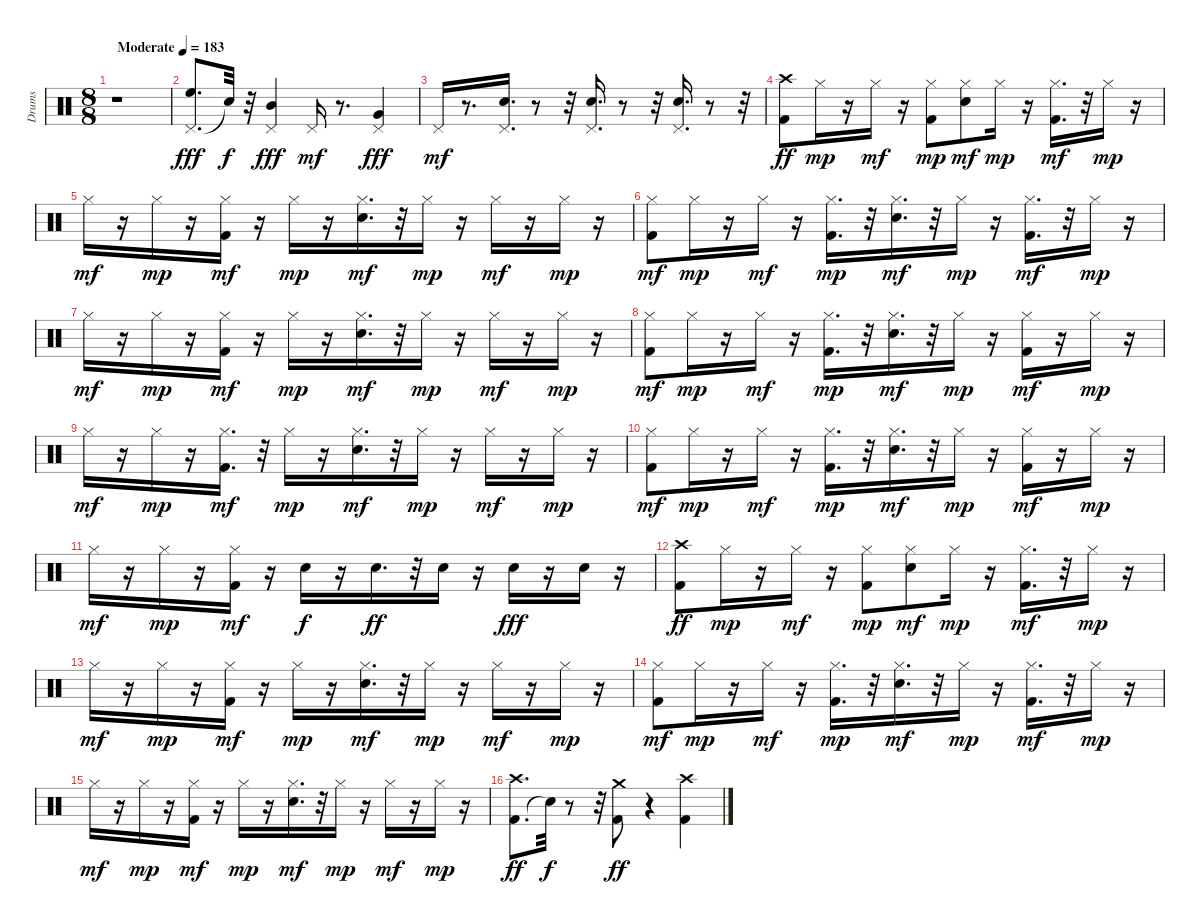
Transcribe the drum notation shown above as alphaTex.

\track ("Drums" "Drums") {instrument percussion}
\staff {score}
\articulation defaults
\ts (8 8)
\tempo (183 "Moderate")
\clef neutral
\ks c
r.1{dy fff} |
("Pedal Hi-Hat (hit)" "High Floor Tom (hit)").8{d} "Snare (hit)"{t}.32{dy f} r.32 ("Pedal Hi-Hat (hit)" "Mid Tom (hit)").4{dy fff} "Pedal Hi-Hat (hit)".16{dy mf} r.8{d} ("Pedal Hi-Hat (hit)" "Very Low Tom (hit)").4{dy fff} |
"Pedal Hi-Hat (hit)".16{dy mf} r.8{d} ("Snare (hit) 2" "Pedal Hi-Hat (hit)").16{d} r.8 r.32 ("Snare (hit) 2" "Pedal Hi-Hat (hit)").16{d} r.8 r.32 ("Snare (hit) 2" "Pedal Hi-Hat (hit)").16{d} r.8 r.32 |
("Kick (hit) 2" "Crash high (hit)").8{dy ff} "Hi-Hat (closed)".16{dy mp} r.16 "Hi-Hat (closed)".16{dy mf} r.16 ("Kick (hit) 2" "Hi-Hat (closed)").8{dy mp} ("Snare (hit) 2" "Hi-Hat (closed)").8{dy mf} "Hi-Hat (closed)".16{dy mp} r.16 ("Kick (hit) 2" "Hi-Hat (closed)").16{d dy mf} r.32 "Hi-Hat (closed)".16{dy mp} r.16 |
"Hi-Hat (closed)".16{dy mf} r.16 "Hi-Hat (closed)".16{dy mp} r.16 ("Kick (hit) 2" "Hi-Hat (closed)").16{dy mf} r.16 "Hi-Hat (closed)".16{dy mp} r.16 ("Snare (hit) 2" "Hi-Hat (closed)").16{d dy mf} r.32 "Hi-Hat (closed)".16{dy mp} r.16 "Hi-Hat (closed)".16{dy mf} r.16 "Hi-Hat (closed)".16{dy mp} r.16 |
("Kick (hit) 2" "Hi-Hat (closed)").8{dy mf} "Hi-Hat (closed)".16{dy mp} r.16 "Hi-Hat (closed)".16{dy mf} r.16 ("Kick (hit) 2" "Hi-Hat (closed)").16{d dy mp} r.32 ("Snare (hit) 2" "Hi-Hat (closed)").16{d dy mf} r.32 "Hi-Hat (closed)".16{dy mp} r.16 ("Kick (hit) 2" "Hi-Hat (closed)").16{d dy mf} r.32 "Hi-Hat (closed)".16{dy mp} r.16 |
"Hi-Hat (closed)".16{dy mf} r.16 "Hi-Hat (closed)".16{dy mp} r.16 ("Kick (hit) 2" "Hi-Hat (closed)").16{dy mf} r.16 "Hi-Hat (closed)".16{dy mp} r.16 ("Snare (hit) 2" "Hi-Hat (closed)").16{d dy mf} r.32 "Hi-Hat (closed)".16{dy mp} r.16 "Hi-Hat (closed)".16{dy mf} r.16 "Hi-Hat (closed)".16{dy mp} r.16 |
("Kick (hit) 2" "Hi-Hat (closed)").8{dy mf} "Hi-Hat (closed)".16{dy mp} r.16 "Hi-Hat (closed)".16{dy mf} r.16 ("Kick (hit) 2" "Hi-Hat (closed)").16{d dy mp} r.32 ("Snare (hit) 2" "Hi-Hat (closed)").16{d dy mf} r.32 "Hi-Hat (closed)".16{dy mp} r.16 ("Kick (hit) 2" "Hi-Hat (closed)").16{dy mf} r.16 "Hi-Hat (closed)".16{dy mp} r.16 |
"Hi-Hat (closed)".16{dy mf} r.16 "Hi-Hat (closed)".16{dy mp} r.16 ("Kick (hit) 2" "Hi-Hat (closed)").16{d dy mf} r.32 "Hi-Hat (closed)".16{dy mp} r.16 ("Snare (hit) 2" "Hi-Hat (closed)").16{d dy mf} r.32 "Hi-Hat (closed)".16{dy mp} r.16 "Hi-Hat (closed)".16{dy mf} r.16 "Hi-Hat (closed)".16{dy mp} r.16 |
("Kick (hit) 2" "Hi-Hat (closed)").8{dy mf} "Hi-Hat (closed)".16{dy mp} r.16 "Hi-Hat (closed)".16{dy mf} r.16 ("Kick (hit) 2" "Hi-Hat (closed)").16{d dy mp} r.32 ("Snare (hit) 2" "Hi-Hat (closed)").16{d dy mf} r.32 "Hi-Hat (closed)".16{dy mp} r.16 ("Kick (hit) 2" "Hi-Hat (closed)").16{dy mf} r.16 "Hi-Hat (closed)".16{dy mp} r.16 |
"Hi-Hat (closed)".16{dy mf} r.16 "Hi-Hat (closed)".16{dy mp} r.16 ("Kick (hit) 2" "Hi-Hat (closed)").16{dy mf} r.16 "Snare (hit) 2".16{dy f} r.16 "Snare (hit) 2".16{d dy ff} r.32 "Snare (hit) 2".16 r.16 "Snare (hit) 2".16{dy fff} r.16 "Snare (hit) 2".16 r.16 |
("Kick (hit) 2" "Crash high (hit)").8{dy ff} "Hi-Hat (closed)".16{dy mp} r.16 "Hi-Hat (closed)".16{dy mf} r.16 ("Kick (hit) 2" "Hi-Hat (closed)").8{dy mp} ("Snare (hit) 2" "Hi-Hat (closed)").8{dy mf} "Hi-Hat (closed)".16{dy mp} r.16 ("Kick (hit) 2" "Hi-Hat (closed)").16{d dy mf} r.32 "Hi-Hat (closed)".16{dy mp} r.16 |
"Hi-Hat (closed)".16{dy mf} r.16 "Hi-Hat (closed)".16{dy mp} r.16 ("Kick (hit) 2" "Hi-Hat (closed)").16{dy mf} r.16 "Hi-Hat (closed)".16{dy mp} r.16 ("Snare (hit) 2" "Hi-Hat (closed)").16{d dy mf} r.32 "Hi-Hat (closed)".16{dy mp} r.16 "Hi-Hat (closed)".16{dy mf} r.16 "Hi-Hat (closed)".16{dy mp} r.16 |
("Kick (hit) 2" "Hi-Hat (closed)").8{dy mf} "Hi-Hat (closed)".16{dy mp} r.16 "Hi-Hat (closed)".16{dy mf} r.16 ("Kick (hit) 2" "Hi-Hat (closed)").16{d dy mp} r.32 ("Snare (hit) 2" "Hi-Hat (closed)").16{d dy mf} r.32 "Hi-Hat (closed)".16{dy mp} r.16 ("Kick (hit) 2" "Hi-Hat (closed)").16{d dy mf} r.32 "Hi-Hat (closed)".16{dy mp} r.16 |
"Hi-Hat (closed)".16{dy mf} r.16 "Hi-Hat (closed)".16{dy mp} r.16 ("Kick (hit) 2" "Hi-Hat (closed)").16{dy mf} r.16 "Hi-Hat (closed)".16{dy mp} r.16 ("Snare (hit) 2" "Hi-Hat (closed)").16{d dy mf} r.32 "Hi-Hat (closed)".16{dy mp} r.16 "Hi-Hat (closed)".16{dy mf} r.16 "Hi-Hat (closed)".16{dy mp} r.16 |
("Kick (hit) 2" "Crash high (hit)").8{d dy ff} "Snare (hit)"{t}.32{dy f} r.8 r.32 ("Kick (hit) 2" "Crash medium (hit)").8{dy ff} r.4 ("Kick (hit) 2" "Crash high (hit)").4
